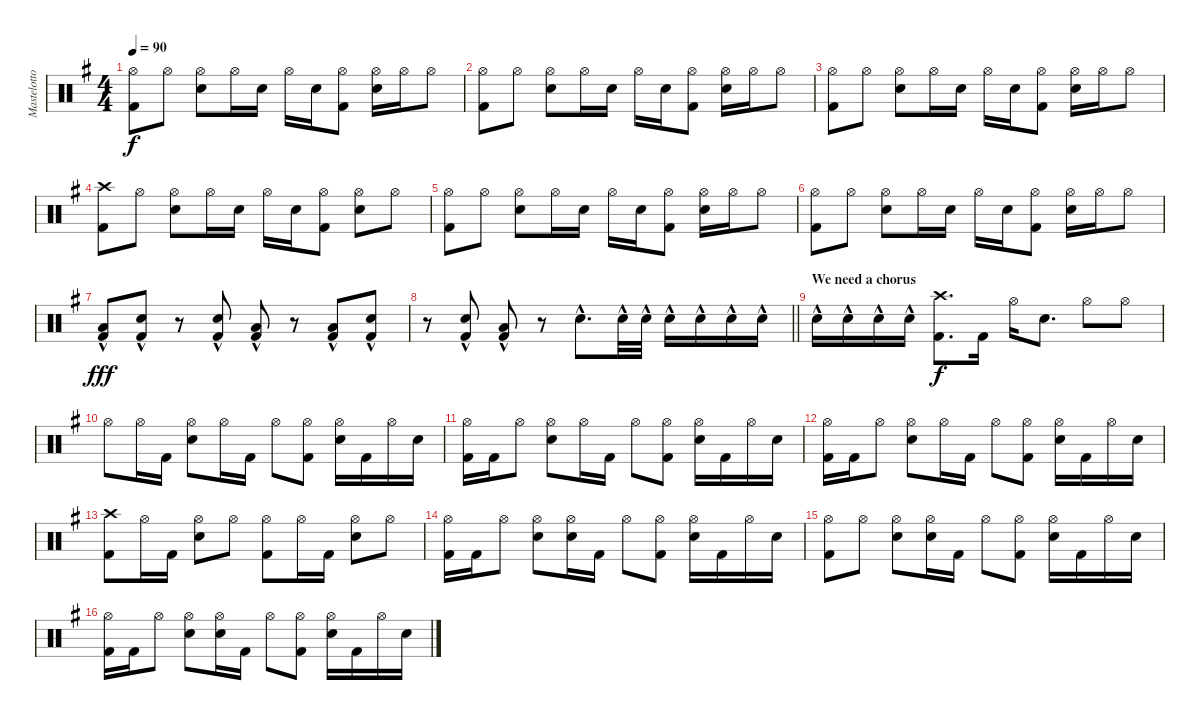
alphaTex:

\track ("Mastelotto" "Mastelotto") {instrument percussion}
\staff {score}
\articulation defaults
\ts (4 4)
\tempo 90
\clef neutral
\ks eminor
("Hi-Hat (open)" "Kick (hit) 2").8{dy f} "Hi-Hat (open)".8 ("Hi-Hat (open)" "Electric Snare (hit)").8 "Hi-Hat (open)".16 "Electric Snare (hit)".16 "Hi-Hat (open)".16 "Electric Snare (hit)".16 ("Hi-Hat (open)" "Kick (hit) 2").8 ("Hi-Hat (open)" "Electric Snare (hit)").16 "Hi-Hat (open)".16 "Hi-Hat (open)".8 |
("Hi-Hat (open)" "Kick (hit) 2").8 "Hi-Hat (open)".8 ("Hi-Hat (open)" "Electric Snare (hit)").8 "Hi-Hat (open)".16 "Electric Snare (hit)".16 "Hi-Hat (open)".16 "Electric Snare (hit)".16 ("Hi-Hat (open)" "Kick (hit) 2").8 ("Hi-Hat (open)" "Electric Snare (hit)").16 "Hi-Hat (open)".16 "Hi-Hat (open)".8 |
("Hi-Hat (open)" "Kick (hit) 2").8 "Hi-Hat (open)".8 ("Hi-Hat (open)" "Electric Snare (hit)").8 "Hi-Hat (open)".16 "Electric Snare (hit)".16 "Hi-Hat (open)".16 "Electric Snare (hit)".16 ("Hi-Hat (open)" "Kick (hit) 2").8 ("Hi-Hat (open)" "Electric Snare (hit)").16 "Hi-Hat (open)".16 "Hi-Hat (open)".8 |
("Crash high (hit)" "Kick (hit) 2").8 "Hi-Hat (open)".8 ("Hi-Hat (open)" "Electric Snare (hit)").8 "Hi-Hat (open)".16 "Electric Snare (hit)".16 "Hi-Hat (open)".16 "Electric Snare (hit)".16 ("Hi-Hat (open)" "Kick (hit) 2").8 ("Hi-Hat (open)" "Electric Snare (hit)").8 "Hi-Hat (open)".8 |
("Hi-Hat (open)" "Kick (hit) 2").8 "Hi-Hat (open)".8 ("Hi-Hat (open)" "Electric Snare (hit)").8 "Hi-Hat (open)".16 "Electric Snare (hit)".16 "Hi-Hat (open)".16 "Electric Snare (hit)".16 ("Hi-Hat (open)" "Kick (hit) 2").8 ("Hi-Hat (open)" "Electric Snare (hit)").16 "Hi-Hat (open)".16 "Hi-Hat (open)".8 |
("Hi-Hat (open)" "Kick (hit) 2").8 "Hi-Hat (open)".8 ("Hi-Hat (open)" "Electric Snare (hit)").8 "Hi-Hat (open)".16 "Electric Snare (hit)".16 "Hi-Hat (open)".16 "Electric Snare (hit)".16 ("Hi-Hat (open)" "Kick (hit) 2").8 ("Hi-Hat (open)" "Electric Snare (hit)").16 "Hi-Hat (open)".16 "Hi-Hat (open)".8 |
("Low Floor Tom (hit)"{hac} "Kick (hit) 2").8{dy fff} ("Electric Snare (hit)"{hac} "Kick (hit) 2").8 r.8 ("Electric Snare (hit)"{hac} "Kick (hit) 2").8 ("Low Floor Tom (hit)"{hac} "Kick (hit) 2").8 r.8 ("Low Floor Tom (hit)"{hac} "Kick (hit) 2").8 ("Electric Snare (hit)"{hac} "Kick (hit) 2").8 |
\barLineRight lightlight
r.8 ("Electric Snare (hit)"{hac} "Kick (hit) 2").8 ("Low Floor Tom (hit)"{hac} "Kick (hit) 2").8 r.8 "Electric Snare (hit)"{hac}.8{d} "Electric Snare (hit)"{hac}.32 "Electric Snare (hit)"{hac}.32 "Electric Snare (hit)"{hac}.16 "Electric Snare (hit)"{hac}.16 "Electric Snare (hit)"{hac}.16 "Electric Snare (hit)"{hac}.16 |
\section ("" "We need a chorus")
"Electric Snare (hit)"{hac}.16 "Electric Snare (hit)"{hac}.16 "Electric Snare (hit)"{hac}.16 "Electric Snare (hit)"{hac}.16 ("Crash high (hit)" "Kick (hit) 2").8{d dy f} "Kick (hit) 2".16 "Hi-Hat (open)".16 "Electric Snare (hit)".8{d} "Hi-Hat (open)".8 "Hi-Hat (open)".8 |
"Hi-Hat (open)".8 "Hi-Hat (open)".16 "Kick (hit) 2".16 ("Hi-Hat (open)" "Electric Snare (hit)").8 "Hi-Hat (open)".16 "Kick (hit) 2".16 "Hi-Hat (open)".8 ("Hi-Hat (open)" "Kick (hit) 2").8 ("Hi-Hat (open)" "Electric Snare (hit)").16 "Kick (hit) 2".16 "Hi-Hat (open)".16 "Electric Snare (hit)".16 |
("Hi-Hat (open)" "Kick (hit) 2").16 "Kick (hit) 2".16 "Hi-Hat (open)".8 ("Hi-Hat (open)" "Electric Snare (hit)").8 "Hi-Hat (open)".16 "Kick (hit) 2".16 "Hi-Hat (open)".8 ("Hi-Hat (open)" "Kick (hit) 2").8 ("Hi-Hat (open)" "Electric Snare (hit)").16 "Kick (hit) 2".16 "Hi-Hat (open)".16 "Electric Snare (hit)".16 |
("Hi-Hat (open)" "Kick (hit) 2").16 "Kick (hit) 2".16 "Hi-Hat (open)".8 ("Hi-Hat (open)" "Electric Snare (hit)").8 "Hi-Hat (open)".16 "Kick (hit) 2".16 "Hi-Hat (open)".8 ("Hi-Hat (open)" "Kick (hit) 2").8 ("Hi-Hat (open)" "Electric Snare (hit)").16 "Kick (hit) 2".16 "Hi-Hat (open)".16 "Electric Snare (hit)".16 |
("Crash high (hit)" "Kick (hit) 2").8 "Hi-Hat (open)".16 "Kick (hit) 2".16 ("Hi-Hat (open)" "Electric Snare (hit)").8 "Hi-Hat (open)".8 ("Hi-Hat (open)" "Kick (hit) 2").8 "Hi-Hat (open)".16 "Kick (hit) 2".16 ("Hi-Hat (open)" "Electric Snare (hit)").8 "Hi-Hat (open)".8 |
("Hi-Hat (open)" "Kick (hit) 2").16 "Kick (hit) 2".16 "Hi-Hat (open)".8 ("Hi-Hat (open)" "Electric Snare (hit)").8 ("Hi-Hat (open)" "Electric Snare (hit)").16 "Kick (hit) 2".16 "Hi-Hat (open)".8 ("Hi-Hat (open)" "Kick (hit) 2").8 ("Hi-Hat (open)" "Electric Snare (hit)").16 "Kick (hit) 2".16 "Hi-Hat (open)".16 "Electric Snare (hit)".16 |
("Hi-Hat (open)" "Kick (hit) 2").8 "Hi-Hat (open)".8 ("Hi-Hat (open)" "Electric Snare (hit)").8 ("Hi-Hat (open)" "Electric Snare (hit)").16 "Kick (hit) 2".16 "Hi-Hat (open)".8 ("Hi-Hat (open)" "Kick (hit) 2").8 ("Hi-Hat (open)" "Electric Snare (hit)").16 "Kick (hit) 2".16 "Hi-Hat (open)".16 "Electric Snare (hit)".16 |
("Hi-Hat (open)" "Kick (hit) 2").16 "Kick (hit) 2".16 "Hi-Hat (open)".8 ("Hi-Hat (open)" "Electric Snare (hit)").8 ("Hi-Hat (open)" "Electric Snare (hit)").16 "Kick (hit) 2".16 "Hi-Hat (open)".8 ("Hi-Hat (open)" "Kick (hit) 2").8 ("Hi-Hat (open)" "Electric Snare (hit)").16 "Kick (hit) 2".16 "Hi-Hat (open)".16 "Electric Snare (hit)".16
